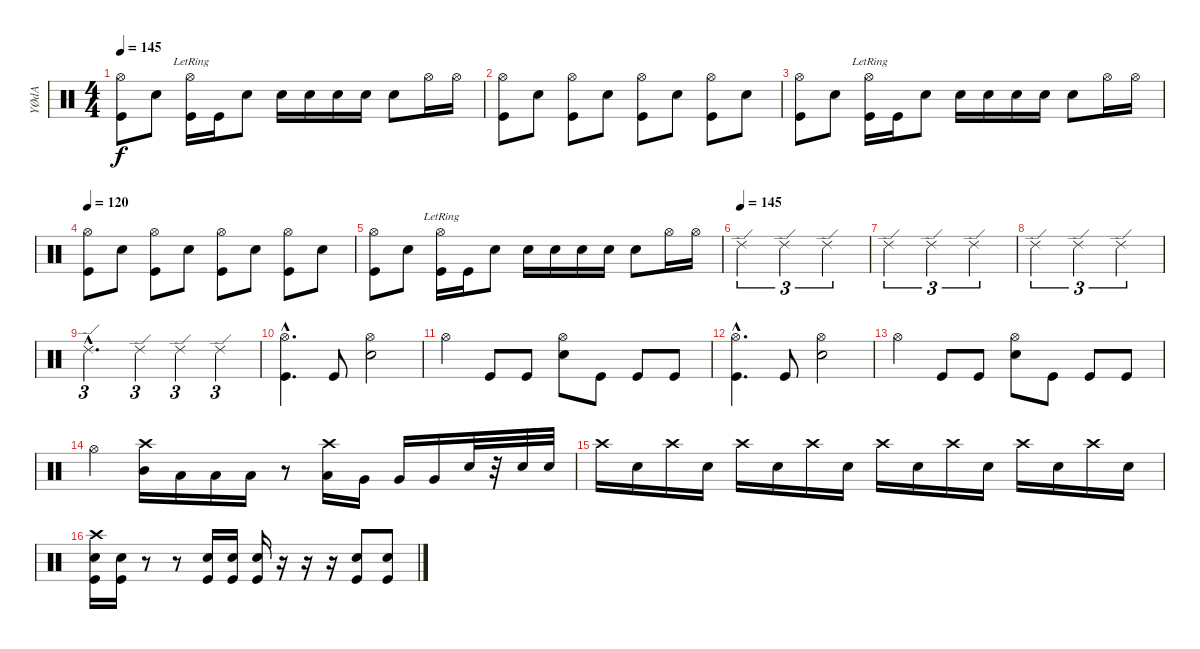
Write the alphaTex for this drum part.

\track ("YØdA" "YØdA") {instrument percussion}
\staff {score}
\articulation defaults
\ts (4 4)
\tempo 145
\clef neutral
\ks c
("Hi-Hat (open)" "Kick (hit)").8{dy f} "Electric Snare (hit)".8 ("Hi-Hat (open)"{lr} "Kick (hit)").16 "Kick (hit)".16 "Electric Snare (hit)".8 "Electric Snare (hit)".16 "Electric Snare (hit)".16 "Electric Snare (hit)".16 "Electric Snare (hit)".16 "Electric Snare (hit)".8 "Hi-Hat (open)".16 "Hi-Hat (open)".16 |
("Hi-Hat (open)" "Kick (hit)").8 "Electric Snare (hit)".8 ("Hi-Hat (open)" "Kick (hit)").8 "Electric Snare (hit)".8 ("Hi-Hat (open)" "Kick (hit)").8 "Electric Snare (hit)".8 ("Hi-Hat (open)" "Kick (hit)").8 "Electric Snare (hit)".8 |
("Hi-Hat (open)" "Kick (hit)").8 "Electric Snare (hit)".8 ("Hi-Hat (open)"{lr} "Kick (hit)").16 "Kick (hit)".16 "Electric Snare (hit)".8 "Electric Snare (hit)".16 "Electric Snare (hit)".16 "Electric Snare (hit)".16 "Electric Snare (hit)".16 "Electric Snare (hit)".8 "Hi-Hat (open)".16 "Hi-Hat (open)".16 |
\tempo 120
("Hi-Hat (open)" "Kick (hit)").8 "Electric Snare (hit)".8 ("Hi-Hat (open)" "Kick (hit)").8 "Electric Snare (hit)".8 ("Hi-Hat (open)" "Kick (hit)").8 "Electric Snare (hit)".8 ("Hi-Hat (open)" "Kick (hit)").8 "Electric Snare (hit)".8 |
("Hi-Hat (open)" "Kick (hit)").8 "Electric Snare (hit)".8 ("Hi-Hat (open)"{lr} "Kick (hit)").16 "Kick (hit)".16 "Electric Snare (hit)".8 "Electric Snare (hit)".16 "Electric Snare (hit)".16 "Electric Snare (hit)".16 "Electric Snare (hit)".16 "Electric Snare (hit)".8 "Hi-Hat (open)".16 "Hi-Hat (open)".16 |
\tempo (145)
"Ride (edge) 2".2{tu (3 2)} "Ride (edge) 2".2{tu (3 2)} "Ride (edge) 2".2{tu (3 2)} |
"Ride (edge) 2".2{tu (3 2)} "Ride (edge) 2".2{tu (3 2)} "Ride (edge) 2".2{tu (3 2)} |
"Ride (edge) 2".2{tu (3 2)} "Ride (edge) 2".2{tu (3 2)} "Ride (edge) 2".2{tu (3 2)} |
"Ride (edge) 2"{hac}.2{d tu (3 2)} "Ride (edge) 2".4{tu (3 2)} "Ride (edge) 2".4{tu (3 2)} "Ride (edge) 2".4{tu (3 2)} |
("Hi-Hat (open)"{hac} "Kick (hit)"{hac}).4{d} "Kick (hit)".8 ("Hi-Hat (open)" "Electric Snare (hit)").2 |
"Hi-Hat (open)".4 "Kick (hit)".8 "Kick (hit)".8 ("Hi-Hat (open)" "Electric Snare (hit)").8 "Kick (hit)".8 "Kick (hit)".8 "Kick (hit)".8 |
("Hi-Hat (open)"{hac} "Kick (hit)"{hac}).4{d} "Kick (hit)".8 ("Hi-Hat (open)" "Electric Snare (hit)").2 |
"Hi-Hat (open)".4 "Kick (hit)".8 "Kick (hit)".8 ("Hi-Hat (open)" "Electric Snare (hit)").8 "Kick (hit)".8 "Kick (hit)".8 "Kick (hit)".8 |
"Hi-Hat (open)".4 ("Crash high (hit)" "Mid Tom (hit)").16 "Low Tom (hit)".16 "Low Tom (hit)".16 "Low Tom (hit)".16 r.8 ("Crash high (hit)" "Low Tom (hit)").16 "Very Low Tom (hit)".16 "Very Low Tom (hit)".16 "Very Low Tom (hit)".16 "Electric Snare (hit)".32 r.32 "Electric Snare (hit)".32 "Electric Snare (hit)".32 |
"Crash high (hit)".16 "Electric Snare (hit)".16 "Crash high (hit)".16 "Electric Snare (hit)".16 "Crash high (hit)".16 "Electric Snare (hit)".16 "Crash high (hit)".16 "Electric Snare (hit)".16 "Crash high (hit)".16 "Electric Snare (hit)".16 "Crash high (hit)".16 "Electric Snare (hit)".16 "Crash high (hit)".16 "Electric Snare (hit)".16 "Crash high (hit)".16 "Electric Snare (hit)".16 |
("Crash high (hit)" "Electric Snare (hit)" "Kick (hit)").16 ("Electric Snare (hit)" "Kick (hit)").16 r.8 r.8 ("Electric Snare (hit)" "Kick (hit)").16 ("Electric Snare (hit)" "Kick (hit)").16 ("Electric Snare (hit)" "Kick (hit)").16 r.16 r.16 r.16 ("Electric Snare (hit)" "Kick (hit)").8 ("Electric Snare (hit)" "Kick (hit)").8
